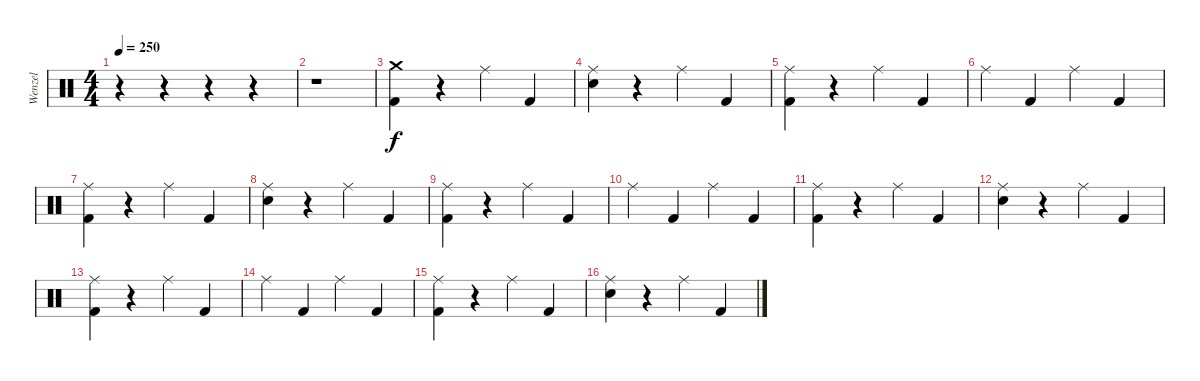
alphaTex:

\track ("Wenzel" "Wenzel") {instrument percussion}
\staff {score}
\articulation defaults
\ts (4 4)
\tempo 250
\clef neutral
\ks c
r.4{dy f} r.4 r.4 r.4 |
r.1 |
("Crash medium (hit)" "Kick (hit) 2").4 r.4 "Ride (middle)".4 "Kick (hit) 2".4 |
("Ride (middle)" "Snare (hit) 2").4 r.4 "Ride (middle)".4 "Kick (hit) 2".4 |
("Ride (middle)" "Kick (hit) 2").4 r.4 "Ride (middle)".4 "Kick (hit) 2".4 |
"Ride (middle)".4 "Kick (hit) 2".4 "Ride (middle)".4 "Kick (hit) 2".4 |
("Ride (middle)" "Kick (hit) 2").4 r.4 "Ride (middle)".4 "Kick (hit) 2".4 |
("Ride (middle)" "Snare (hit) 2").4 r.4 "Ride (middle)".4 "Kick (hit) 2".4 |
("Ride (middle)" "Kick (hit) 2").4 r.4 "Ride (middle)".4 "Kick (hit) 2".4 |
"Ride (middle)".4 "Kick (hit) 2".4 "Ride (middle)".4 "Kick (hit) 2".4 |
("Ride (middle)" "Kick (hit) 2").4 r.4 "Ride (middle)".4 "Kick (hit) 2".4 |
("Ride (middle)" "Snare (hit) 2").4 r.4 "Ride (middle)".4 "Kick (hit) 2".4 |
("Ride (middle)" "Kick (hit) 2").4 r.4 "Ride (middle)".4 "Kick (hit) 2".4 |
"Ride (middle)".4 "Kick (hit) 2".4 "Ride (middle)".4 "Kick (hit) 2".4 |
("Ride (middle)" "Kick (hit) 2").4 r.4 "Ride (middle)".4 "Kick (hit) 2".4 |
("Ride (middle)" "Snare (hit) 2").4 r.4 "Ride (middle)".4 "Kick (hit) 2".4
